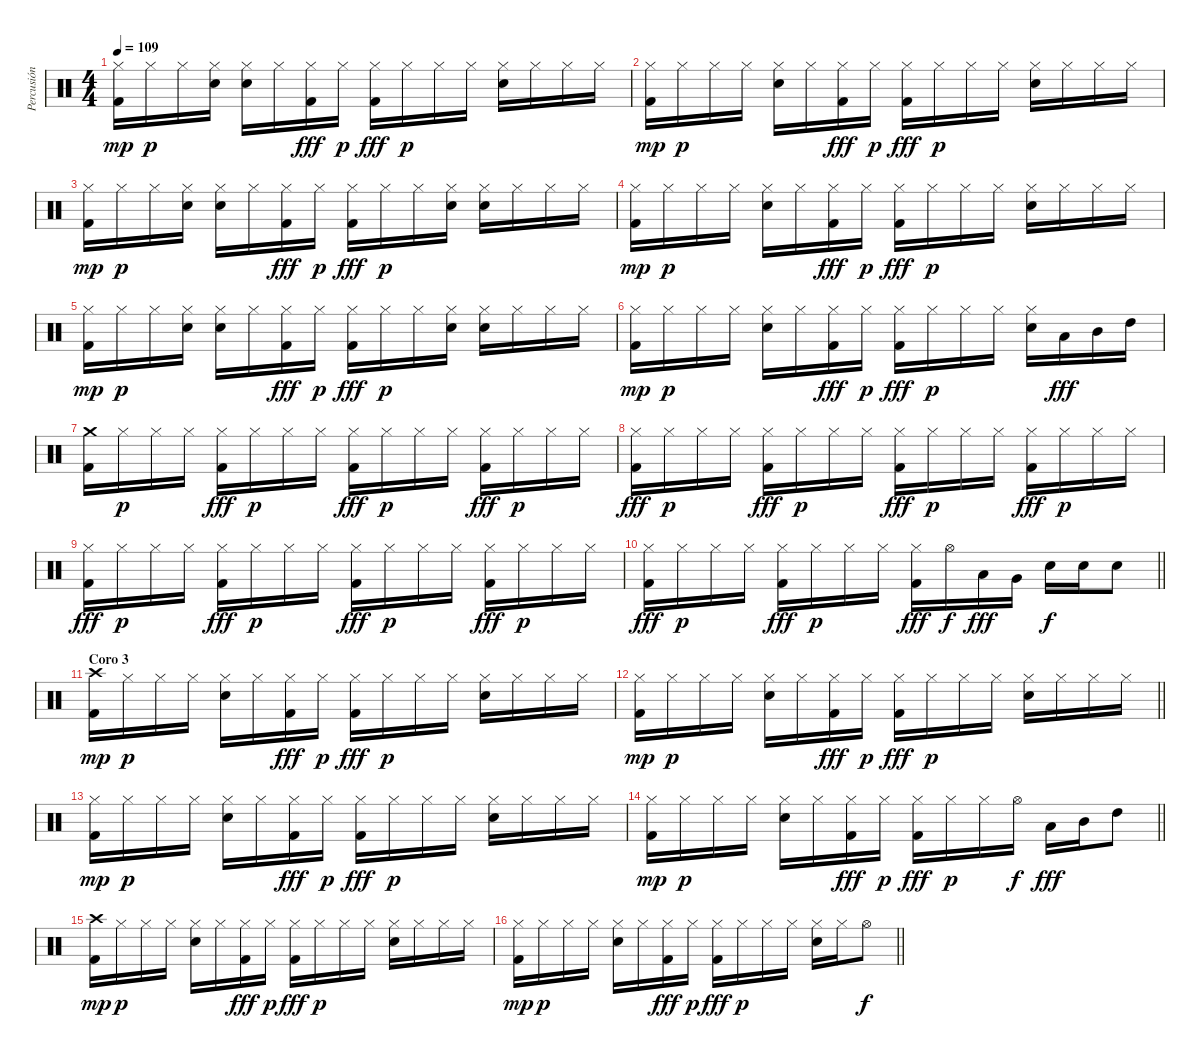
\track ("Percusión" "Percusión") {instrument percussion}
\staff {score}
\articulation defaults
\ts (4 4)
\tempo 109
\clef neutral
\ks c
("Hi-Hat (closed)" "Kick (hit) 2").16{dy mp} "Hi-Hat (closed)".16{dy p} "Hi-Hat (closed)".16 ("Hi-Hat (closed)" "Snare (hit) 2").16 ("Hi-Hat (closed)" "Snare (hit) 2").16 "Hi-Hat (closed)".16 ("Hi-Hat (closed)" "Kick (hit) 2").16{dy fff} "Hi-Hat (closed)".16{dy p} ("Hi-Hat (closed)" "Kick (hit) 2").16{dy fff} "Hi-Hat (closed)".16{dy p} "Hi-Hat (closed)".16 "Hi-Hat (closed)".16 ("Hi-Hat (closed)" "Snare (hit) 2").16 "Hi-Hat (closed)".16 "Hi-Hat (closed)".16 "Hi-Hat (closed)".16 |
("Hi-Hat (closed)" "Kick (hit) 2").16{dy mp} "Hi-Hat (closed)".16{dy p} "Hi-Hat (closed)".16 "Hi-Hat (closed)".16 ("Hi-Hat (closed)" "Snare (hit) 2").16 "Hi-Hat (closed)".16 ("Hi-Hat (closed)" "Kick (hit) 2").16{dy fff} "Hi-Hat (closed)".16{dy p} ("Hi-Hat (closed)" "Kick (hit) 2").16{dy fff} "Hi-Hat (closed)".16{dy p} "Hi-Hat (closed)".16 "Hi-Hat (closed)".16 ("Hi-Hat (closed)" "Snare (hit) 2").16 "Hi-Hat (closed)".16 "Hi-Hat (closed)".16 "Hi-Hat (closed)".16 |
("Hi-Hat (closed)" "Kick (hit) 2").16{dy mp} "Hi-Hat (closed)".16{dy p} "Hi-Hat (closed)".16 ("Hi-Hat (closed)" "Snare (hit) 2").16 ("Hi-Hat (closed)" "Snare (hit) 2").16 "Hi-Hat (closed)".16 ("Hi-Hat (closed)" "Kick (hit) 2").16{dy fff} "Hi-Hat (closed)".16{dy p} ("Hi-Hat (closed)" "Kick (hit) 2").16{dy fff} "Hi-Hat (closed)".16{dy p} "Hi-Hat (closed)".16 ("Hi-Hat (closed)" "Snare (hit) 2").16 ("Hi-Hat (closed)" "Snare (hit) 2").16 "Hi-Hat (closed)".16 "Hi-Hat (closed)".16 "Hi-Hat (closed)".16 |
("Hi-Hat (closed)" "Kick (hit) 2").16{dy mp} "Hi-Hat (closed)".16{dy p} "Hi-Hat (closed)".16 "Hi-Hat (closed)".16 ("Hi-Hat (closed)" "Snare (hit) 2").16 "Hi-Hat (closed)".16 ("Hi-Hat (closed)" "Kick (hit) 2").16{dy fff} "Hi-Hat (closed)".16{dy p} ("Hi-Hat (closed)" "Kick (hit) 2").16{dy fff} "Hi-Hat (closed)".16{dy p} "Hi-Hat (closed)".16 "Hi-Hat (closed)".16 ("Hi-Hat (closed)" "Snare (hit) 2").16 "Hi-Hat (closed)".16 "Hi-Hat (closed)".16 "Hi-Hat (closed)".16 |
("Hi-Hat (closed)" "Kick (hit) 2").16{dy mp} "Hi-Hat (closed)".16{dy p} "Hi-Hat (closed)".16 ("Hi-Hat (closed)" "Snare (hit) 2").16 ("Hi-Hat (closed)" "Snare (hit) 2").16 "Hi-Hat (closed)".16 ("Hi-Hat (closed)" "Kick (hit) 2").16{dy fff} "Hi-Hat (closed)".16{dy p} ("Hi-Hat (closed)" "Kick (hit) 2").16{dy fff} "Hi-Hat (closed)".16{dy p} "Hi-Hat (closed)".16 ("Hi-Hat (closed)" "Snare (hit) 2").16 ("Hi-Hat (closed)" "Snare (hit) 2").16 "Hi-Hat (closed)".16 "Hi-Hat (closed)".16 "Hi-Hat (closed)".16 |
("Hi-Hat (closed)" "Kick (hit) 2").16{dy mp} "Hi-Hat (closed)".16{dy p} "Hi-Hat (closed)".16 "Hi-Hat (closed)".16 ("Hi-Hat (closed)" "Snare (hit) 2").16 "Hi-Hat (closed)".16 ("Hi-Hat (closed)" "Kick (hit) 2").16{dy fff} "Hi-Hat (closed)".16{dy p} ("Hi-Hat (closed)" "Kick (hit) 2").16{dy fff} "Hi-Hat (closed)".16{dy p} "Hi-Hat (closed)".16 "Hi-Hat (closed)".16 ("Hi-Hat (closed)" "Snare (hit) 2").16 "Low Tom (hit)".16{dy fff} "Mid Tom (hit)".16 "High Tom (hit)".16 |
("Crash medium (hit)" "Kick (hit) 2").16 "Hi-Hat (closed)".16{dy p} "Hi-Hat (closed)".16 "Hi-Hat (closed)".16 ("Hi-Hat (closed)" "Kick (hit) 2").16{dy fff} "Hi-Hat (closed)".16{dy p} "Hi-Hat (closed)".16 "Hi-Hat (closed)".16 ("Hi-Hat (closed)" "Kick (hit) 2").16{dy fff} "Hi-Hat (closed)".16{dy p} "Hi-Hat (closed)".16 "Hi-Hat (closed)".16 ("Hi-Hat (closed)" "Kick (hit) 2").16{dy fff} "Hi-Hat (closed)".16{dy p} "Hi-Hat (closed)".16 "Hi-Hat (closed)".16 |
("Hi-Hat (closed)" "Kick (hit) 2").16{dy fff} "Hi-Hat (closed)".16{dy p} "Hi-Hat (closed)".16 "Hi-Hat (closed)".16 ("Hi-Hat (closed)" "Kick (hit) 2").16{dy fff} "Hi-Hat (closed)".16{dy p} "Hi-Hat (closed)".16 "Hi-Hat (closed)".16 ("Hi-Hat (closed)" "Kick (hit) 2").16{dy fff} "Hi-Hat (closed)".16{dy p} "Hi-Hat (closed)".16 "Hi-Hat (closed)".16 ("Hi-Hat (closed)" "Kick (hit) 2").16{dy fff} "Hi-Hat (closed)".16{dy p} "Hi-Hat (closed)".16 "Hi-Hat (closed)".16 |
("Hi-Hat (closed)" "Kick (hit) 2").16{dy fff} "Hi-Hat (closed)".16{dy p} "Hi-Hat (closed)".16 "Hi-Hat (closed)".16 ("Hi-Hat (closed)" "Kick (hit) 2").16{dy fff} "Hi-Hat (closed)".16{dy p} "Hi-Hat (closed)".16 "Hi-Hat (closed)".16 ("Hi-Hat (closed)" "Kick (hit) 2").16{dy fff} "Hi-Hat (closed)".16{dy p} "Hi-Hat (closed)".16 "Hi-Hat (closed)".16 ("Hi-Hat (closed)" "Kick (hit) 2").16{dy fff} "Hi-Hat (closed)".16{dy p} "Hi-Hat (closed)".16 "Hi-Hat (closed)".16 |
\barLineRight lightlight
("Hi-Hat (closed)" "Kick (hit) 2").16{dy fff} "Hi-Hat (closed)".16{dy p} "Hi-Hat (closed)".16 "Hi-Hat (closed)".16 ("Hi-Hat (closed)" "Kick (hit) 2").16{dy fff} "Hi-Hat (closed)".16{dy p} "Hi-Hat (closed)".16 "Hi-Hat (closed)".16 ("Hi-Hat (closed)" "Kick (hit) 2").16{dy fff} "Hi-Hat (open)".16{dy f} "Low Floor Tom (hit)".16{dy fff} "Very Low Tom (hit)".16 "Snare (hit) 2".16{dy f} "Snare (hit) 2".16 "Snare (hit) 2".8 |
\section ("" "Coro 3")
("Crash high (hit)" "Kick (hit) 2").16{dy mp} "Hi-Hat (closed)".16{dy p} "Hi-Hat (closed)".16 "Hi-Hat (closed)".16 ("Hi-Hat (closed)" "Snare (hit) 2").16 "Hi-Hat (closed)".16 ("Hi-Hat (closed)" "Kick (hit) 2").16{dy fff} "Hi-Hat (closed)".16{dy p} ("Hi-Hat (closed)" "Kick (hit) 2").16{dy fff} "Hi-Hat (closed)".16{dy p} "Hi-Hat (closed)".16 "Hi-Hat (closed)".16 ("Hi-Hat (closed)" "Snare (hit) 2").16 "Hi-Hat (closed)".16 "Hi-Hat (closed)".16 "Hi-Hat (closed)".16 |
\barLineRight lightlight
("Hi-Hat (closed)" "Kick (hit) 2").16{dy mp} "Hi-Hat (closed)".16{dy p} "Hi-Hat (closed)".16 "Hi-Hat (closed)".16 ("Hi-Hat (closed)" "Snare (hit) 2").16 "Hi-Hat (closed)".16 ("Hi-Hat (closed)" "Kick (hit) 2").16{dy fff} "Hi-Hat (closed)".16{dy p} ("Hi-Hat (closed)" "Kick (hit) 2").16{dy fff} "Hi-Hat (closed)".16{dy p} "Hi-Hat (closed)".16 "Hi-Hat (closed)".16 ("Hi-Hat (closed)" "Snare (hit) 2").16 "Hi-Hat (closed)".16 "Hi-Hat (closed)".16 "Hi-Hat (closed)".16 |
("Hi-Hat (closed)" "Kick (hit) 2").16{dy mp} "Hi-Hat (closed)".16{dy p} "Hi-Hat (closed)".16 "Hi-Hat (closed)".16 ("Hi-Hat (closed)" "Snare (hit) 2").16 "Hi-Hat (closed)".16 ("Hi-Hat (closed)" "Kick (hit) 2").16{dy fff} "Hi-Hat (closed)".16{dy p} ("Hi-Hat (closed)" "Kick (hit) 2").16{dy fff} "Hi-Hat (closed)".16{dy p} "Hi-Hat (closed)".16 "Hi-Hat (closed)".16 ("Hi-Hat (closed)" "Snare (hit) 2").16 "Hi-Hat (closed)".16 "Hi-Hat (closed)".16 "Hi-Hat (closed)".16 |
\barLineRight lightlight
("Hi-Hat (closed)" "Kick (hit) 2").16{dy mp} "Hi-Hat (closed)".16{dy p} "Hi-Hat (closed)".16 "Hi-Hat (closed)".16 ("Hi-Hat (closed)" "Snare (hit) 2").16 "Hi-Hat (closed)".16 ("Hi-Hat (closed)" "Kick (hit) 2").16{dy fff} "Hi-Hat (closed)".16{dy p} ("Hi-Hat (closed)" "Kick (hit) 2").16{dy fff} "Hi-Hat (closed)".16{dy p} "Hi-Hat (closed)".16 "Hi-Hat (open)".16{dy f} "Low Tom (hit)".16{dy fff} "Mid Tom (hit)".16 "High Tom (hit)".8 |
("Crash high (hit)" "Kick (hit) 2").16{dy mp} "Hi-Hat (closed)".16{dy p} "Hi-Hat (closed)".16 "Hi-Hat (closed)".16 ("Hi-Hat (closed)" "Snare (hit) 2").16 "Hi-Hat (closed)".16 ("Hi-Hat (closed)" "Kick (hit) 2").16{dy fff} "Hi-Hat (closed)".16{dy p} ("Hi-Hat (closed)" "Kick (hit) 2").16{dy fff} "Hi-Hat (closed)".16{dy p} "Hi-Hat (closed)".16 "Hi-Hat (closed)".16 ("Hi-Hat (closed)" "Snare (hit) 2").16 "Hi-Hat (closed)".16 "Hi-Hat (closed)".16 "Hi-Hat (closed)".16 |
\barLineRight lightlight
("Hi-Hat (closed)" "Kick (hit) 2").16{dy mp} "Hi-Hat (closed)".16{dy p} "Hi-Hat (closed)".16 "Hi-Hat (closed)".16 ("Hi-Hat (closed)" "Snare (hit) 2").16 "Hi-Hat (closed)".16 ("Hi-Hat (closed)" "Kick (hit) 2").16{dy fff} "Hi-Hat (closed)".16{dy p} ("Hi-Hat (closed)" "Kick (hit) 2").16{dy fff} "Hi-Hat (closed)".16{dy p} "Hi-Hat (closed)".16 "Hi-Hat (closed)".16 ("Hi-Hat (closed)" "Snare (hit) 2").16 "Hi-Hat (closed)".16 "Hi-Hat (open)".8{dy f}
